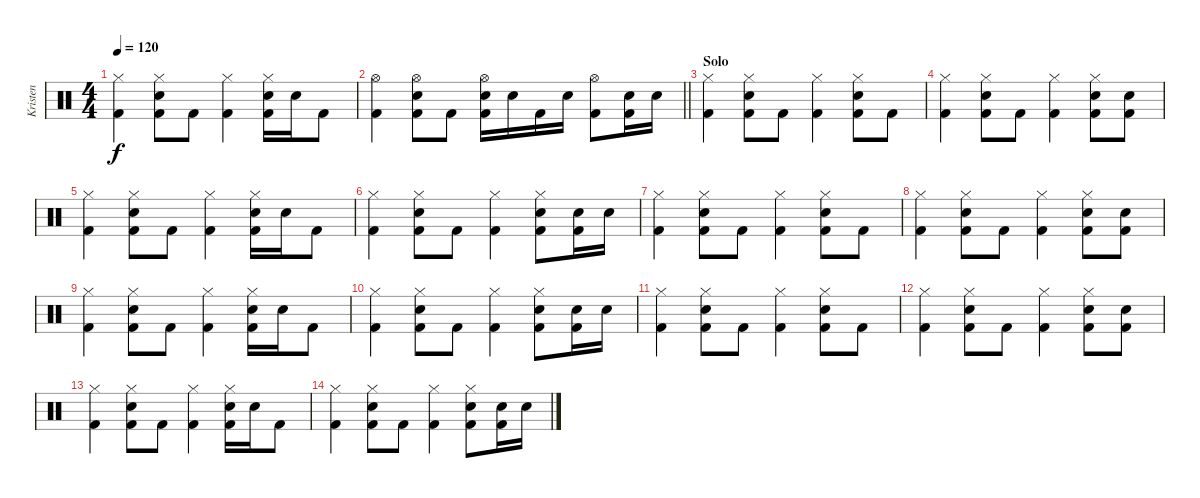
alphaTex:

\track ("Kristen" "Kristen") {instrument percussion}
\staff {score}
\articulation defaults
\ts (4 4)
\tempo 120
\clef neutral
\ks c
("Hi-Hat (closed)" "Kick (hit) 2").4{dy f} ("Hi-Hat (closed)" "Snare (hit) 2" "Kick (hit) 2").8 "Kick (hit) 2".8 ("Hi-Hat (closed)" "Kick (hit) 2").4 ("Hi-Hat (closed)" "Snare (hit) 2" "Kick (hit) 2").16 "Snare (hit) 2".16 "Kick (hit) 2".8 |
\barLineRight lightlight
("Hi-Hat (open)" "Kick (hit) 2").4 ("Hi-Hat (open)" "Snare (hit) 2" "Kick (hit) 2").8 "Kick (hit) 2".8 ("Hi-Hat (open)" "Snare (hit) 2" "Kick (hit) 2").16 "Snare (hit) 2".16 "Kick (hit) 2".16 "Snare (hit) 2".16 ("Hi-Hat (open)" "Kick (hit) 2").8 ("Snare (hit) 2" "Kick (hit) 2").16 "Snare (hit) 2".16 |
\section ("" "Solo")
("Hi-Hat (closed)" "Kick (hit) 2").4 ("Hi-Hat (closed)" "Snare (hit) 2" "Kick (hit) 2").8 "Kick (hit) 2".8 ("Hi-Hat (closed)" "Kick (hit) 2").4 ("Hi-Hat (closed)" "Snare (hit) 2" "Kick (hit) 2").8 "Kick (hit) 2".8 |
("Hi-Hat (closed)" "Kick (hit) 2").4 ("Hi-Hat (closed)" "Snare (hit) 2" "Kick (hit) 2").8 "Kick (hit) 2".8 ("Hi-Hat (closed)" "Kick (hit) 2").4 ("Hi-Hat (closed)" "Snare (hit) 2" "Kick (hit) 2").8 ("Snare (hit) 2" "Kick (hit) 2").8 |
("Hi-Hat (closed)" "Kick (hit) 2").4 ("Hi-Hat (closed)" "Snare (hit) 2" "Kick (hit) 2").8 "Kick (hit) 2".8 ("Hi-Hat (closed)" "Kick (hit) 2").4 ("Hi-Hat (closed)" "Snare (hit) 2" "Kick (hit) 2").16 "Snare (hit) 2".16 "Kick (hit) 2".8 |
("Hi-Hat (closed)" "Kick (hit) 2").4 ("Hi-Hat (closed)" "Snare (hit) 2" "Kick (hit) 2").8 "Kick (hit) 2".8 ("Hi-Hat (closed)" "Kick (hit) 2").4 ("Hi-Hat (closed)" "Snare (hit) 2" "Kick (hit) 2").8 ("Snare (hit) 2" "Kick (hit) 2").16 "Snare (hit) 2".16 |
("Hi-Hat (closed)" "Kick (hit) 2").4 ("Hi-Hat (closed)" "Snare (hit) 2" "Kick (hit) 2").8 "Kick (hit) 2".8 ("Hi-Hat (closed)" "Kick (hit) 2").4 ("Hi-Hat (closed)" "Snare (hit) 2" "Kick (hit) 2").8 "Kick (hit) 2".8 |
("Hi-Hat (closed)" "Kick (hit) 2").4 ("Hi-Hat (closed)" "Snare (hit) 2" "Kick (hit) 2").8 "Kick (hit) 2".8 ("Hi-Hat (closed)" "Kick (hit) 2").4 ("Hi-Hat (closed)" "Snare (hit) 2" "Kick (hit) 2").8 ("Snare (hit) 2" "Kick (hit) 2").8 |
("Hi-Hat (closed)" "Kick (hit) 2").4 ("Hi-Hat (closed)" "Snare (hit) 2" "Kick (hit) 2").8 "Kick (hit) 2".8 ("Hi-Hat (closed)" "Kick (hit) 2").4 ("Hi-Hat (closed)" "Snare (hit) 2" "Kick (hit) 2").16 "Snare (hit) 2".16 "Kick (hit) 2".8 |
("Hi-Hat (closed)" "Kick (hit) 2").4 ("Hi-Hat (closed)" "Snare (hit) 2" "Kick (hit) 2").8 "Kick (hit) 2".8 ("Hi-Hat (closed)" "Kick (hit) 2").4 ("Hi-Hat (closed)" "Snare (hit) 2" "Kick (hit) 2").8 ("Snare (hit) 2" "Kick (hit) 2").16 "Snare (hit) 2".16 |
("Hi-Hat (closed)" "Kick (hit) 2").4 ("Hi-Hat (closed)" "Snare (hit) 2" "Kick (hit) 2").8 "Kick (hit) 2".8 ("Hi-Hat (closed)" "Kick (hit) 2").4 ("Hi-Hat (closed)" "Snare (hit) 2" "Kick (hit) 2").8 "Kick (hit) 2".8 |
("Hi-Hat (closed)" "Kick (hit) 2").4 ("Hi-Hat (closed)" "Snare (hit) 2" "Kick (hit) 2").8 "Kick (hit) 2".8 ("Hi-Hat (closed)" "Kick (hit) 2").4 ("Hi-Hat (closed)" "Snare (hit) 2" "Kick (hit) 2").8 ("Snare (hit) 2" "Kick (hit) 2").8 |
("Hi-Hat (closed)" "Kick (hit) 2").4 ("Hi-Hat (closed)" "Snare (hit) 2" "Kick (hit) 2").8 "Kick (hit) 2".8 ("Hi-Hat (closed)" "Kick (hit) 2").4 ("Hi-Hat (closed)" "Snare (hit) 2" "Kick (hit) 2").16 "Snare (hit) 2".16 "Kick (hit) 2".8 |
("Hi-Hat (closed)" "Kick (hit) 2").4 ("Hi-Hat (closed)" "Snare (hit) 2" "Kick (hit) 2").8 "Kick (hit) 2".8 ("Hi-Hat (closed)" "Kick (hit) 2").4 ("Hi-Hat (closed)" "Snare (hit) 2" "Kick (hit) 2").8 ("Snare (hit) 2" "Kick (hit) 2").16 "Snare (hit) 2".16
